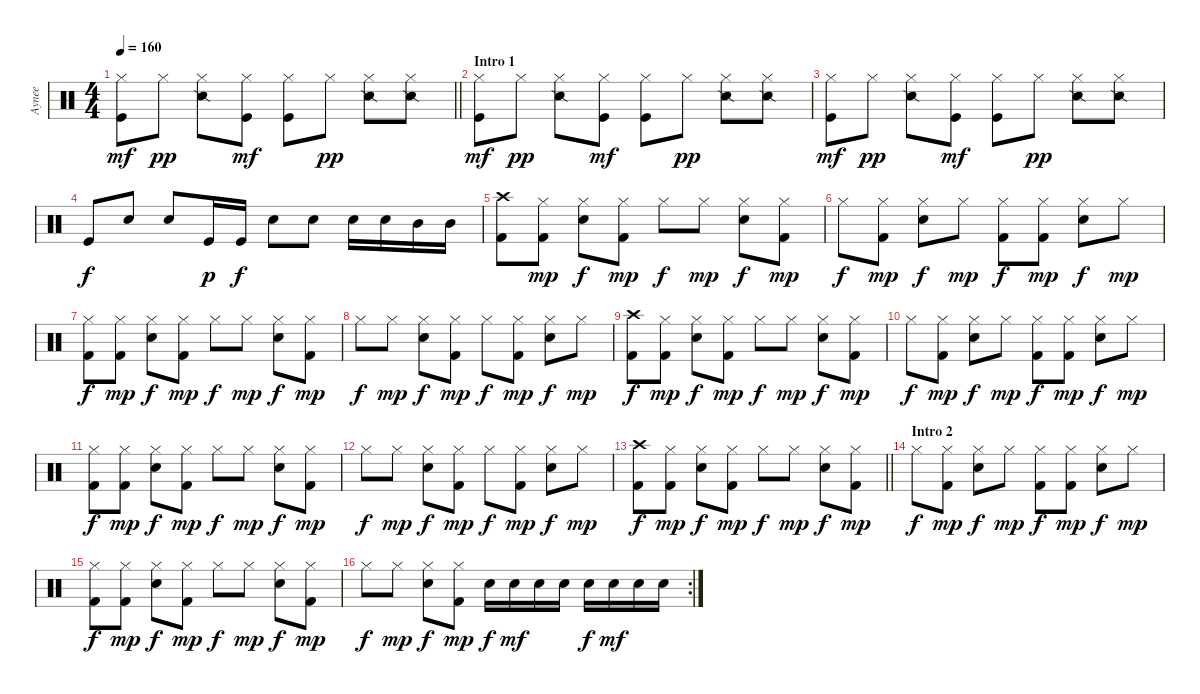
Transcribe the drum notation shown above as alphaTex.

\track ("Aynee " "Aynee ") {instrument percussion}
\staff {score}
\articulation defaults
\ts (4 4)
\tempo 160
\clef neutral
\barLineRight lightlight
\ks c
("Hi-Hat (closed)" "Kick (hit)").8{dy mf} "Hi-Hat (closed)".8{dy pp} ("Snare (side stick) 2" "Hi-Hat (closed)").8 ("Hi-Hat (closed)" "Kick (hit)").8{dy mf} ("Hi-Hat (closed)" "Kick (hit)").8 "Hi-Hat (closed)".8{dy pp} ("Snare (side stick) 2" "Hi-Hat (closed)").8 ("Snare (side stick) 2" "Hi-Hat (closed)").8 |
\section ("" "Intro 1")
("Hi-Hat (closed)" "Kick (hit)").8{dy mf} "Hi-Hat (closed)".8{dy pp} ("Snare (side stick) 2" "Hi-Hat (closed)").8 ("Hi-Hat (closed)" "Kick (hit)").8{dy mf} ("Hi-Hat (closed)" "Kick (hit)").8 "Hi-Hat (closed)".8{dy pp} ("Snare (side stick) 2" "Hi-Hat (closed)").8 ("Snare (side stick) 2" "Hi-Hat (closed)").8 |
("Hi-Hat (closed)" "Kick (hit)").8{dy mf} "Hi-Hat (closed)".8{dy pp} ("Snare (side stick) 2" "Hi-Hat (closed)").8 ("Hi-Hat (closed)" "Kick (hit)").8{dy mf} ("Hi-Hat (closed)" "Kick (hit)").8 "Hi-Hat (closed)".8{dy pp} ("Snare (side stick) 2" "Hi-Hat (closed)").8 ("Snare (side stick) 2" "Hi-Hat (closed)").8 |
"Kick (hit)".8{dy f} "Electric Snare (hit)".8 "Electric Snare (hit)".8 "Kick (hit)".16{dy p} "Kick (hit)".16{dy f} "Electric Snare (hit)".8 "Electric Snare (hit)".8 "Electric Snare (hit)".16 "Electric Snare (hit)".16 "Mid Tom (hit)".16 "Mid Tom (hit)".16 |
("Crash high (hit)" "Kick (hit) 2").8 ("Hi-Hat (closed)" "Kick (hit) 2").8{dy mp} ("Hi-Hat (closed)" "Electric Snare (hit)").8{dy f} ("Hi-Hat (closed)" "Kick (hit) 2").8{dy mp} "Hi-Hat (closed)".8{dy f} "Hi-Hat (closed)".8{dy mp} ("Hi-Hat (closed)" "Electric Snare (hit)").8{dy f} ("Hi-Hat (closed)" "Kick (hit) 2").8{dy mp} |
"Hi-Hat (closed)".8{dy f} ("Hi-Hat (closed)" "Kick (hit) 2").8{dy mp} ("Hi-Hat (closed)" "Electric Snare (hit)").8{dy f} "Hi-Hat (closed)".8{dy mp} ("Hi-Hat (closed)" "Kick (hit) 2").8{dy f} ("Hi-Hat (closed)" "Kick (hit) 2").8{dy mp} ("Hi-Hat (closed)" "Electric Snare (hit)").8{dy f} "Hi-Hat (closed)".8{dy mp} |
("Hi-Hat (closed)" "Kick (hit) 2").8{dy f} ("Hi-Hat (closed)" "Kick (hit) 2").8{dy mp} ("Hi-Hat (closed)" "Electric Snare (hit)").8{dy f} ("Hi-Hat (closed)" "Kick (hit) 2").8{dy mp} "Hi-Hat (closed)".8{dy f} "Hi-Hat (closed)".8{dy mp} ("Hi-Hat (closed)" "Electric Snare (hit)").8{dy f} ("Hi-Hat (closed)" "Kick (hit) 2").8{dy mp} |
"Hi-Hat (closed)".8{dy f} "Hi-Hat (closed)".8{dy mp} ("Hi-Hat (closed)" "Electric Snare (hit)").8{dy f} ("Hi-Hat (closed)" "Kick (hit) 2").8{dy mp} "Hi-Hat (closed)".8{dy f} ("Hi-Hat (closed)" "Kick (hit) 2").8{dy mp} ("Hi-Hat (closed)" "Electric Snare (hit)").8{dy f} "Hi-Hat (closed)".8{dy mp} |
("Crash high (hit)" "Kick (hit) 2").8{dy f} ("Hi-Hat (closed)" "Kick (hit) 2").8{dy mp} ("Hi-Hat (closed)" "Electric Snare (hit)").8{dy f} ("Hi-Hat (closed)" "Kick (hit) 2").8{dy mp} "Hi-Hat (closed)".8{dy f} "Hi-Hat (closed)".8{dy mp} ("Hi-Hat (closed)" "Electric Snare (hit)").8{dy f} ("Hi-Hat (closed)" "Kick (hit) 2").8{dy mp} |
"Hi-Hat (closed)".8{dy f} ("Hi-Hat (closed)" "Kick (hit) 2").8{dy mp} ("Hi-Hat (closed)" "Electric Snare (hit)").8{dy f} "Hi-Hat (closed)".8{dy mp} ("Hi-Hat (closed)" "Kick (hit) 2").8{dy f} ("Hi-Hat (closed)" "Kick (hit) 2").8{dy mp} ("Hi-Hat (closed)" "Electric Snare (hit)").8{dy f} "Hi-Hat (closed)".8{dy mp} |
("Hi-Hat (closed)" "Kick (hit) 2").8{dy f} ("Hi-Hat (closed)" "Kick (hit) 2").8{dy mp} ("Hi-Hat (closed)" "Electric Snare (hit)").8{dy f} ("Hi-Hat (closed)" "Kick (hit) 2").8{dy mp} "Hi-Hat (closed)".8{dy f} "Hi-Hat (closed)".8{dy mp} ("Hi-Hat (closed)" "Electric Snare (hit)").8{dy f} ("Hi-Hat (closed)" "Kick (hit) 2").8{dy mp} |
"Hi-Hat (closed)".8{dy f} "Hi-Hat (closed)".8{dy mp} ("Hi-Hat (closed)" "Electric Snare (hit)").8{dy f} ("Hi-Hat (closed)" "Kick (hit) 2").8{dy mp} "Hi-Hat (closed)".8{dy f} ("Hi-Hat (closed)" "Kick (hit) 2").8{dy mp} ("Hi-Hat (closed)" "Electric Snare (hit)").8{dy f} "Hi-Hat (closed)".8{dy mp} |
\barLineRight lightlight
("Crash high (hit)" "Kick (hit) 2").8{dy f} ("Hi-Hat (closed)" "Kick (hit) 2").8{dy mp} ("Hi-Hat (closed)" "Electric Snare (hit)").8{dy f} ("Hi-Hat (closed)" "Kick (hit) 2").8{dy mp} "Hi-Hat (closed)".8{dy f} "Hi-Hat (closed)".8{dy mp} ("Hi-Hat (closed)" "Electric Snare (hit)").8{dy f} ("Hi-Hat (closed)" "Kick (hit) 2").8{dy mp} |
\section ("" "Intro 2")
"Hi-Hat (closed)".8{dy f} ("Hi-Hat (closed)" "Kick (hit) 2").8{dy mp} ("Hi-Hat (closed)" "Electric Snare (hit)").8{dy f} "Hi-Hat (closed)".8{dy mp} ("Hi-Hat (closed)" "Kick (hit) 2").8{dy f} ("Hi-Hat (closed)" "Kick (hit) 2").8{dy mp} ("Hi-Hat (closed)" "Electric Snare (hit)").8{dy f} "Hi-Hat (closed)".8{dy mp} |
("Hi-Hat (closed)" "Kick (hit) 2").8{dy f} ("Hi-Hat (closed)" "Kick (hit) 2").8{dy mp} ("Hi-Hat (closed)" "Electric Snare (hit)").8{dy f} ("Hi-Hat (closed)" "Kick (hit) 2").8{dy mp} "Hi-Hat (closed)".8{dy f} "Hi-Hat (closed)".8{dy mp} ("Hi-Hat (closed)" "Electric Snare (hit)").8{dy f} ("Hi-Hat (closed)" "Kick (hit) 2").8{dy mp} |
\rc 2 "Hi-Hat (closed)".8{dy f} "Hi-Hat (closed)".8{dy mp}
("Hi-Hat (closed)" "Electric Snare (hit)").8{dy f} ("Hi-Hat (closed)" "Kick (hit) 2").8{dy mp} "Electric Snare (hit)".16{dy f} "Electric Snare (hit)".16{dy mf} "Electric Snare (hit)".16 "Electric Snare (hit)".16 "Electric Snare (hit)".16{dy f} "Electric Snare (hit)".16{dy mf} "Electric Snare (hit)".16 "Electric Snare (hit)".16
